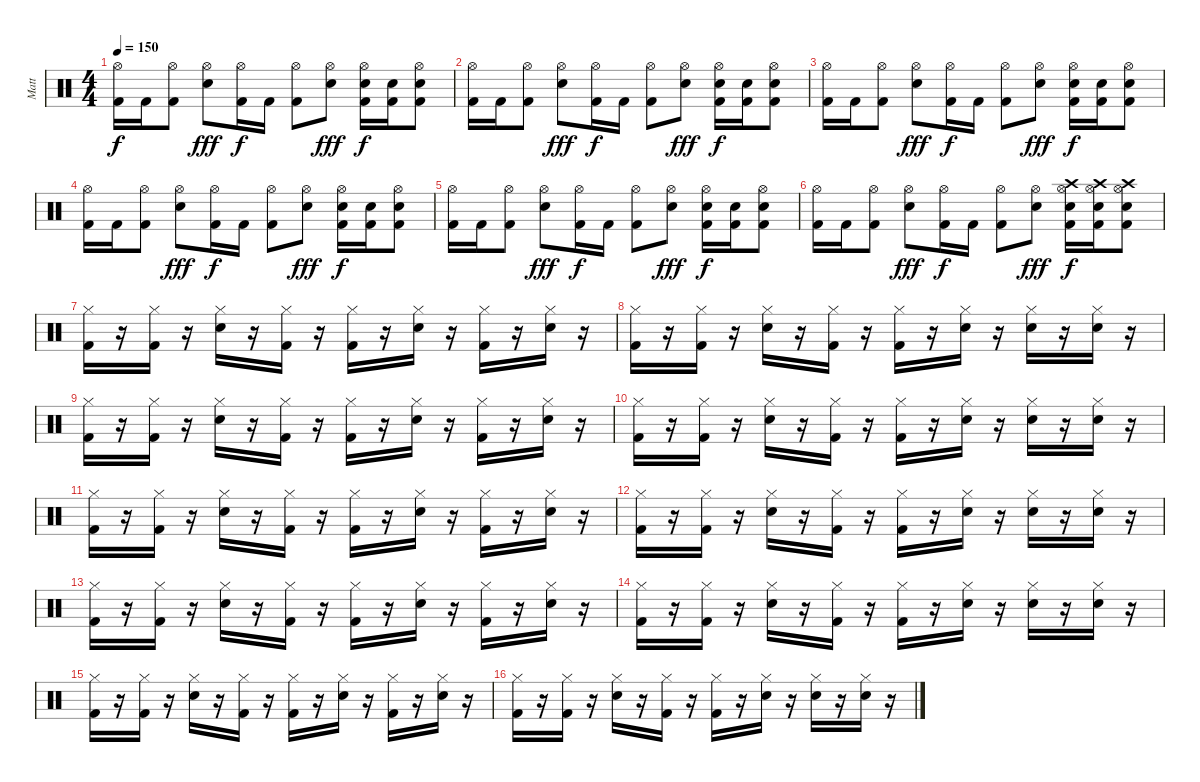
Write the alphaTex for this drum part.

\track ("Matt" "Matt") {instrument percussion}
\staff {score}
\articulation defaults
\ts (4 4)
\tempo 150
\clef neutral
\ks c
("Hi-Hat (open)" "Kick (hit) 2").16{dy f} "Kick (hit) 2".16 ("Hi-Hat (open)" "Kick (hit) 2").8 ("Hi-Hat (open)" "Snare (hit) 2").8{dy fff} ("Hi-Hat (open)" "Kick (hit) 2").16{dy f} "Kick (hit) 2".16 ("Hi-Hat (open)" "Kick (hit) 2").8 ("Hi-Hat (open)" "Snare (hit) 2").8{dy fff} ("Hi-Hat (open)" "Snare (hit) 2" "Kick (hit) 2").16{dy f} ("Snare (hit) 2" "Kick (hit) 2").16 ("Hi-Hat (open)" "Snare (hit) 2" "Kick (hit) 2").8 |
("Hi-Hat (open)" "Kick (hit) 2").16 "Kick (hit) 2".16 ("Hi-Hat (open)" "Kick (hit) 2").8 ("Hi-Hat (open)" "Snare (hit) 2").8{dy fff} ("Hi-Hat (open)" "Kick (hit) 2").16{dy f} "Kick (hit) 2".16 ("Hi-Hat (open)" "Kick (hit) 2").8 ("Hi-Hat (open)" "Snare (hit) 2").8{dy fff} ("Hi-Hat (open)" "Snare (hit) 2" "Kick (hit) 2").16{dy f} ("Snare (hit) 2" "Kick (hit) 2").16 ("Hi-Hat (open)" "Snare (hit) 2" "Kick (hit) 2").8 |
("Hi-Hat (open)" "Kick (hit) 2").16 "Kick (hit) 2".16 ("Hi-Hat (open)" "Kick (hit) 2").8 ("Hi-Hat (open)" "Snare (hit) 2").8{dy fff} ("Hi-Hat (open)" "Kick (hit) 2").16{dy f} "Kick (hit) 2".16 ("Hi-Hat (open)" "Kick (hit) 2").8 ("Hi-Hat (open)" "Snare (hit) 2").8{dy fff} ("Hi-Hat (open)" "Snare (hit) 2" "Kick (hit) 2").16{dy f} ("Snare (hit) 2" "Kick (hit) 2").16 ("Hi-Hat (open)" "Snare (hit) 2" "Kick (hit) 2").8 |
("Hi-Hat (open)" "Kick (hit) 2").16 "Kick (hit) 2".16 ("Hi-Hat (open)" "Kick (hit) 2").8 ("Hi-Hat (open)" "Snare (hit) 2").8{dy fff} ("Hi-Hat (open)" "Kick (hit) 2").16{dy f} "Kick (hit) 2".16 ("Hi-Hat (open)" "Kick (hit) 2").8 ("Hi-Hat (open)" "Snare (hit) 2").8{dy fff} ("Hi-Hat (open)" "Snare (hit) 2" "Kick (hit) 2").16{dy f} ("Snare (hit) 2" "Kick (hit) 2").16 ("Hi-Hat (open)" "Snare (hit) 2" "Kick (hit) 2").8 |
("Hi-Hat (open)" "Kick (hit) 2").16 "Kick (hit) 2".16 ("Hi-Hat (open)" "Kick (hit) 2").8 ("Hi-Hat (open)" "Snare (hit) 2").8{dy fff} ("Hi-Hat (open)" "Kick (hit) 2").16{dy f} "Kick (hit) 2".16 ("Hi-Hat (open)" "Kick (hit) 2").8 ("Hi-Hat (open)" "Snare (hit) 2").8{dy fff} ("Hi-Hat (open)" "Snare (hit) 2" "Kick (hit) 2").16{dy f} ("Snare (hit) 2" "Kick (hit) 2").16 ("Hi-Hat (open)" "Snare (hit) 2" "Kick (hit) 2").8 |
("Hi-Hat (open)" "Kick (hit) 2").16 "Kick (hit) 2".16 ("Hi-Hat (open)" "Kick (hit) 2").8 ("Hi-Hat (open)" "Snare (hit) 2").8{dy fff} ("Hi-Hat (open)" "Kick (hit) 2").16{dy f} "Kick (hit) 2".16 ("Hi-Hat (open)" "Kick (hit) 2").8 ("Hi-Hat (open)" "Snare (hit) 2").8{dy fff} ("Hi-Hat (open)" "Crash high (hit)" "Snare (hit) 2" "Kick (hit) 2").16{dy f} ("Hi-Hat (open)" "Crash high (hit)" "Snare (hit) 2" "Kick (hit) 2").16 ("Hi-Hat (open)" "Crash high (hit)" "Snare (hit) 2" "Kick (hit) 2").8 |
("Hi-Hat (closed)" "Kick (hit) 2").16 r.16 ("Hi-Hat (closed)" "Kick (hit) 2").16 r.16 ("Hi-Hat (closed)" "Snare (hit) 2").16 r.16 ("Hi-Hat (closed)" "Kick (hit) 2").16 r.16 ("Hi-Hat (closed)" "Kick (hit) 2").16 r.16 ("Hi-Hat (closed)" "Snare (hit) 2").16 r.16 ("Hi-Hat (closed)" "Kick (hit) 2").16 r.16 ("Hi-Hat (closed)" "Snare (hit) 2").16 r.16 |
("Hi-Hat (closed)" "Kick (hit) 2").16 r.16 ("Hi-Hat (closed)" "Kick (hit) 2").16 r.16 ("Hi-Hat (closed)" "Snare (hit) 2").16 r.16 ("Hi-Hat (closed)" "Kick (hit) 2").16 r.16 ("Hi-Hat (closed)" "Kick (hit) 2").16 r.16 ("Hi-Hat (closed)" "Snare (hit) 2").16 r.16 ("Hi-Hat (closed)" "Snare (hit) 2").16 r.16 ("Hi-Hat (closed)" "Snare (hit) 2").16 r.16 |
("Hi-Hat (closed)" "Kick (hit) 2").16 r.16 ("Hi-Hat (closed)" "Kick (hit) 2").16 r.16 ("Hi-Hat (closed)" "Snare (hit) 2").16 r.16 ("Hi-Hat (closed)" "Kick (hit) 2").16 r.16 ("Hi-Hat (closed)" "Kick (hit) 2").16 r.16 ("Hi-Hat (closed)" "Snare (hit) 2").16 r.16 ("Hi-Hat (closed)" "Kick (hit) 2").16 r.16 ("Hi-Hat (closed)" "Snare (hit) 2").16 r.16 |
("Hi-Hat (closed)" "Kick (hit) 2").16 r.16 ("Hi-Hat (closed)" "Kick (hit) 2").16 r.16 ("Hi-Hat (closed)" "Snare (hit) 2").16 r.16 ("Hi-Hat (closed)" "Kick (hit) 2").16 r.16 ("Hi-Hat (closed)" "Kick (hit) 2").16 r.16 ("Hi-Hat (closed)" "Snare (hit) 2").16 r.16 ("Hi-Hat (closed)" "Snare (hit) 2").16 r.16 ("Hi-Hat (closed)" "Snare (hit) 2").16 r.16 |
("Hi-Hat (closed)" "Kick (hit) 2").16 r.16 ("Hi-Hat (closed)" "Kick (hit) 2").16 r.16 ("Hi-Hat (closed)" "Snare (hit) 2").16 r.16 ("Hi-Hat (closed)" "Kick (hit) 2").16 r.16 ("Hi-Hat (closed)" "Kick (hit) 2").16 r.16 ("Hi-Hat (closed)" "Snare (hit) 2").16 r.16 ("Hi-Hat (closed)" "Kick (hit) 2").16 r.16 ("Hi-Hat (closed)" "Snare (hit) 2").16 r.16 |
("Hi-Hat (closed)" "Kick (hit) 2").16 r.16 ("Hi-Hat (closed)" "Kick (hit) 2").16 r.16 ("Hi-Hat (closed)" "Snare (hit) 2").16 r.16 ("Hi-Hat (closed)" "Kick (hit) 2").16 r.16 ("Hi-Hat (closed)" "Kick (hit) 2").16 r.16 ("Hi-Hat (closed)" "Snare (hit) 2").16 r.16 ("Hi-Hat (closed)" "Snare (hit) 2").16 r.16 ("Hi-Hat (closed)" "Snare (hit) 2").16 r.16 |
("Hi-Hat (closed)" "Kick (hit) 2").16 r.16 ("Hi-Hat (closed)" "Kick (hit) 2").16 r.16 ("Hi-Hat (closed)" "Snare (hit) 2").16 r.16 ("Hi-Hat (closed)" "Kick (hit) 2").16 r.16 ("Hi-Hat (closed)" "Kick (hit) 2").16 r.16 ("Hi-Hat (closed)" "Snare (hit) 2").16 r.16 ("Hi-Hat (closed)" "Kick (hit) 2").16 r.16 ("Hi-Hat (closed)" "Snare (hit) 2").16 r.16 |
("Hi-Hat (closed)" "Kick (hit) 2").16 r.16 ("Hi-Hat (closed)" "Kick (hit) 2").16 r.16 ("Hi-Hat (closed)" "Snare (hit) 2").16 r.16 ("Hi-Hat (closed)" "Kick (hit) 2").16 r.16 ("Hi-Hat (closed)" "Kick (hit) 2").16 r.16 ("Hi-Hat (closed)" "Snare (hit) 2").16 r.16 ("Hi-Hat (closed)" "Snare (hit) 2").16 r.16 ("Hi-Hat (closed)" "Snare (hit) 2").16 r.16 |
("Hi-Hat (closed)" "Kick (hit) 2").16 r.16 ("Hi-Hat (closed)" "Kick (hit) 2").16 r.16 ("Hi-Hat (closed)" "Snare (hit) 2").16 r.16 ("Hi-Hat (closed)" "Kick (hit) 2").16 r.16 ("Hi-Hat (closed)" "Kick (hit) 2").16 r.16 ("Hi-Hat (closed)" "Snare (hit) 2").16 r.16 ("Hi-Hat (closed)" "Kick (hit) 2").16 r.16 ("Hi-Hat (closed)" "Snare (hit) 2").16 r.16 |
("Hi-Hat (closed)" "Kick (hit) 2").16 r.16 ("Hi-Hat (closed)" "Kick (hit) 2").16 r.16 ("Hi-Hat (closed)" "Snare (hit) 2").16 r.16 ("Hi-Hat (closed)" "Kick (hit) 2").16 r.16 ("Hi-Hat (closed)" "Kick (hit) 2").16 r.16 ("Hi-Hat (closed)" "Snare (hit) 2").16 r.16 ("Hi-Hat (closed)" "Snare (hit) 2").16 r.16 ("Hi-Hat (closed)" "Snare (hit) 2").16 r.16
